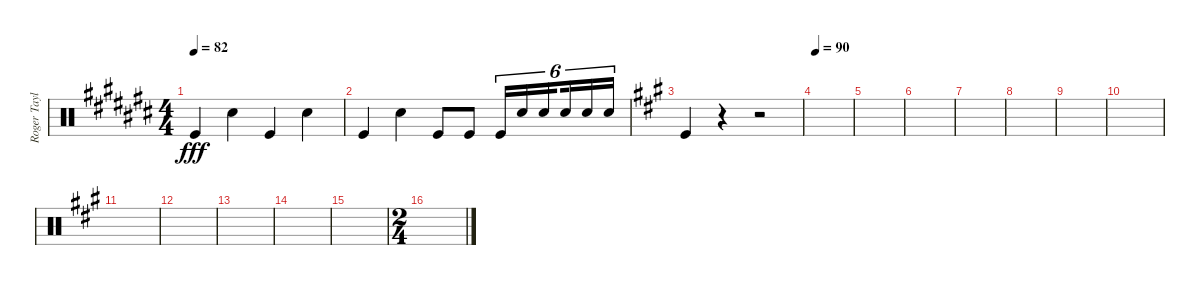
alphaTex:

\track ("Roger Taylor" "Roger Tayl") {instrument percussion}
\staff {score}
\articulation defaults
\ts (4 4)
\tempo 82
\clef neutral
\ks c# "Kick (hit)".4{dy fff} "Snare (hit) 2".4 "Kick (hit)".4 "Snare (hit) 2".4
|
"Kick (hit)".4 "Snare (hit) 2".4 "Kick (hit)".8 "Kick (hit)".8 "Kick (hit)".16{tu (6 4)} "Snare (hit) 2".16{tu (6 4)} "Snare (hit) 2".16{tu (6 4) beam splitsecondary} "Snare (hit) 2".16{tu (6 4)} "Snare (hit) 2".16{tu (6 4)} "Snare (hit) 2".16{tu (6 4)} |
\ks a "Kick (hit)".4
r.4 r.2 |
\tempo 90
|
|
|
|
|
|
|
|
|
|
|
|
\ts (2 4)
